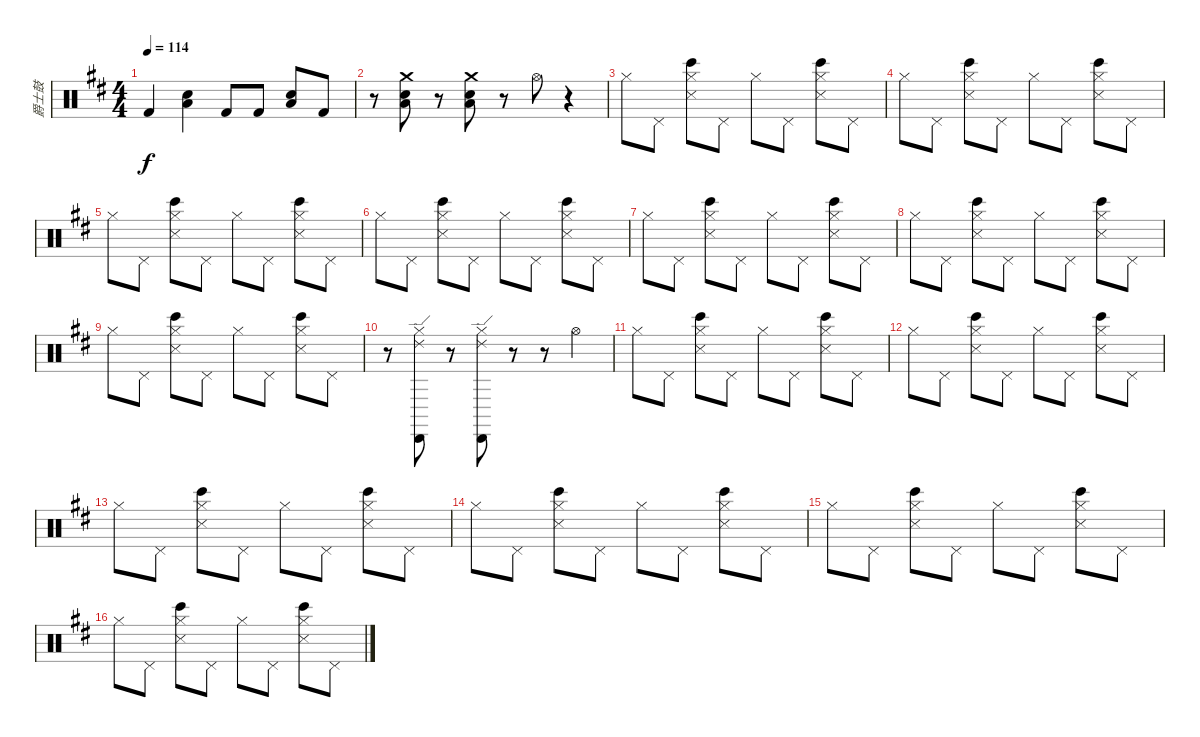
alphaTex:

\track ("爵士鼓" "爵士鼓") {instrument percussion}
\staff {score}
\articulation defaults
\ts (4 4)
\tempo 114
\clef neutral
\ks d "Kick (hit) 2".4{dy f}
("Low Tom (hit)" "Snare (hit) 2").4 "Kick (hit) 2".8 "Kick (hit) 2".8 ("Low Tom (hit)" "Snare (hit) 2").8 "Kick (hit) 2".8 |
r.8 ("Crash medium (hit)" "Low Tom (hit)" "Electric Snare (hit)").8 r.8 ("Crash medium (hit)" "Low Tom (hit)" "Electric Snare (hit)").8 r.8 "Hi-Hat (open)".8 r.4 |
"Hi-Hat (closed)".8{volume 8} "Pedal Hi-Hat (hit)".8 ("Hi-Hat (closed)" "Snare (side stick) 3" "Bongo High (hit)").8 "Pedal Hi-Hat (hit)".8 "Hi-Hat (closed)".8 "Pedal Hi-Hat (hit)".8 ("Hi-Hat (closed)" "Snare (side stick) 3" "Bongo High (hit)").8 "Pedal Hi-Hat (hit)".8 |
"Hi-Hat (closed)".8 "Pedal Hi-Hat (hit)".8 ("Hi-Hat (closed)" "Snare (side stick) 3" "Bongo High (hit)").8 "Pedal Hi-Hat (hit)".8 "Hi-Hat (closed)".8 "Pedal Hi-Hat (hit)".8 ("Hi-Hat (closed)" "Snare (side stick) 3" "Bongo High (hit)").8 "Pedal Hi-Hat (hit)".8 |
"Hi-Hat (closed)".8 "Pedal Hi-Hat (hit)".8 ("Hi-Hat (closed)" "Snare (side stick) 3" "Bongo High (hit)").8 "Pedal Hi-Hat (hit)".8 "Hi-Hat (closed)".8 "Pedal Hi-Hat (hit)".8 ("Hi-Hat (closed)" "Snare (side stick) 3" "Bongo High (hit)").8 "Pedal Hi-Hat (hit)".8 |
"Hi-Hat (closed)".8 "Pedal Hi-Hat (hit)".8 ("Hi-Hat (closed)" "Snare (side stick) 3" "Bongo High (hit)").8 "Pedal Hi-Hat (hit)".8 "Hi-Hat (closed)".8 "Pedal Hi-Hat (hit)".8 ("Hi-Hat (closed)" "Snare (side stick) 3" "Bongo High (hit)").8 "Pedal Hi-Hat (hit)".8 |
"Hi-Hat (closed)".8 "Pedal Hi-Hat (hit)".8 ("Hi-Hat (closed)" "Snare (side stick) 3" "Bongo High (hit)").8 "Pedal Hi-Hat (hit)".8 "Hi-Hat (closed)".8 "Pedal Hi-Hat (hit)".8 ("Hi-Hat (closed)" "Snare (side stick) 3" "Bongo High (hit)").8 "Pedal Hi-Hat (hit)".8 |
"Hi-Hat (closed)".8 "Pedal Hi-Hat (hit)".8 ("Hi-Hat (closed)" "Snare (side stick) 3" "Bongo High (hit)").8 "Pedal Hi-Hat (hit)".8 "Hi-Hat (closed)".8 "Pedal Hi-Hat (hit)".8 ("Hi-Hat (closed)" "Snare (side stick) 3" "Bongo High (hit)").8 "Pedal Hi-Hat (hit)".8 |
"Hi-Hat (closed)".8 "Pedal Hi-Hat (hit)".8 ("Hi-Hat (closed)" "Snare (side stick) 3" "Bongo High (hit)").8 "Pedal Hi-Hat (hit)".8 "Hi-Hat (closed)".8 "Pedal Hi-Hat (hit)".8 ("Hi-Hat (closed)" "Snare (side stick) 3" "Bongo High (hit)").8 "Pedal Hi-Hat (hit)".8 |
r.8 ("Hi-Hat (closed)" "Cabasa (hit)" "Ride (edge) 2").8 r.8 ("Hi-Hat (closed)" "Cabasa (hit)" "Ride (edge) 2").8 r.8 r.8 "Hi-Hat (open)".4 |
"Hi-Hat (closed)".8 "Pedal Hi-Hat (hit)".8 ("Hi-Hat (closed)" "Snare (side stick) 3" "Bongo High (hit)").8 "Pedal Hi-Hat (hit)".8 "Hi-Hat (closed)".8 "Pedal Hi-Hat (hit)".8 ("Hi-Hat (closed)" "Snare (side stick) 3" "Bongo High (hit)").8 "Pedal Hi-Hat (hit)".8 |
"Hi-Hat (closed)".8 "Pedal Hi-Hat (hit)".8 ("Hi-Hat (closed)" "Snare (side stick) 3" "Bongo High (hit)").8 "Pedal Hi-Hat (hit)".8 "Hi-Hat (closed)".8 "Pedal Hi-Hat (hit)".8 ("Hi-Hat (closed)" "Snare (side stick) 3" "Bongo High (hit)").8 "Pedal Hi-Hat (hit)".8 |
"Hi-Hat (closed)".8 "Pedal Hi-Hat (hit)".8 ("Hi-Hat (closed)" "Snare (side stick) 3" "Bongo High (hit)").8 "Pedal Hi-Hat (hit)".8 "Hi-Hat (closed)".8 "Pedal Hi-Hat (hit)".8 ("Hi-Hat (closed)" "Snare (side stick) 3" "Bongo High (hit)").8 "Pedal Hi-Hat (hit)".8 |
"Hi-Hat (closed)".8 "Pedal Hi-Hat (hit)".8 ("Hi-Hat (closed)" "Snare (side stick) 3" "Bongo High (hit)").8 "Pedal Hi-Hat (hit)".8 "Hi-Hat (closed)".8 "Pedal Hi-Hat (hit)".8 ("Hi-Hat (closed)" "Snare (side stick) 3" "Bongo High (hit)").8 "Pedal Hi-Hat (hit)".8 |
"Hi-Hat (closed)".8 "Pedal Hi-Hat (hit)".8 ("Hi-Hat (closed)" "Snare (side stick) 3" "Bongo High (hit)").8 "Pedal Hi-Hat (hit)".8 "Hi-Hat (closed)".8 "Pedal Hi-Hat (hit)".8 ("Hi-Hat (closed)" "Snare (side stick) 3" "Bongo High (hit)").8 "Pedal Hi-Hat (hit)".8 |
"Hi-Hat (closed)".8 "Pedal Hi-Hat (hit)".8 ("Hi-Hat (closed)" "Snare (side stick) 3" "Bongo High (hit)").8 "Pedal Hi-Hat (hit)".8 "Hi-Hat (closed)".8 "Pedal Hi-Hat (hit)".8 ("Hi-Hat (closed)" "Snare (side stick) 3" "Bongo High (hit)").8 "Pedal Hi-Hat (hit)".8
